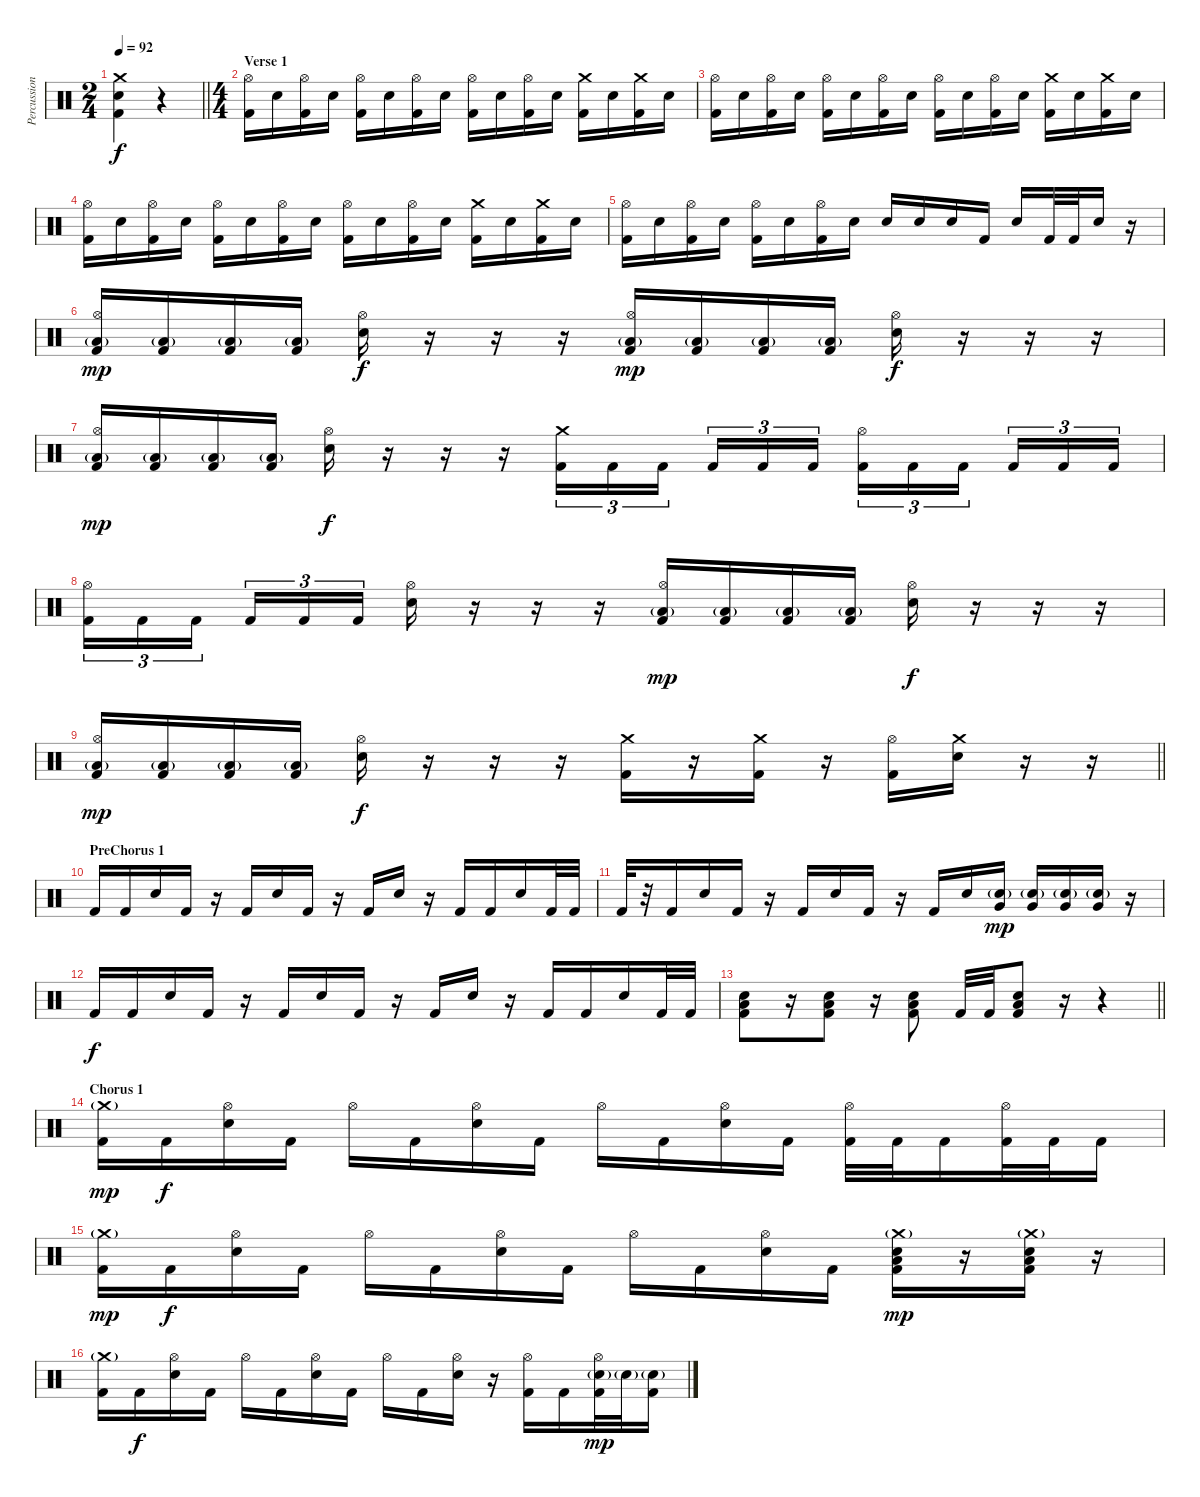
\track ("Percussion" "Percussion") {instrument percussion}
\staff {score}
\articulation defaults
\ts (2 4)
\tempo 92
\clef neutral
\barLineRight lightlight
\ks c
("Crash medium (hit)" "Electric Snare (hit)" "Kick (hit) 2").4{dy f} r.4 |
\ts (4 4)
\section ("" "Verse 1")
("Hi-Hat (open)" "Kick (hit) 2").16 "Electric Snare (hit)".16 ("Hi-Hat (open)" "Kick (hit) 2").16 "Electric Snare (hit)".16 ("Hi-Hat (open)" "Kick (hit) 2").16 "Electric Snare (hit)".16 ("Hi-Hat (open)" "Kick (hit) 2").16 "Electric Snare (hit)".16 ("Hi-Hat (open)" "Kick (hit) 2").16 "Electric Snare (hit)".16 ("Hi-Hat (open)" "Kick (hit) 2").16 "Electric Snare (hit)".16 ("Crash medium (hit)" "Kick (hit) 2").16 "Electric Snare (hit)".16 ("Crash medium (hit)" "Kick (hit) 2").16 "Electric Snare (hit)".16 |
("Hi-Hat (open)" "Kick (hit) 2").16 "Electric Snare (hit)".16 ("Hi-Hat (open)" "Kick (hit) 2").16 "Electric Snare (hit)".16 ("Hi-Hat (open)" "Kick (hit) 2").16 "Electric Snare (hit)".16 ("Hi-Hat (open)" "Kick (hit) 2").16 "Electric Snare (hit)".16 ("Hi-Hat (open)" "Kick (hit) 2").16 "Electric Snare (hit)".16 ("Hi-Hat (open)" "Kick (hit) 2").16 "Electric Snare (hit)".16 ("Crash medium (hit)" "Kick (hit) 2").16 "Electric Snare (hit)".16 ("Crash medium (hit)" "Kick (hit) 2").16 "Electric Snare (hit)".16 |
("Hi-Hat (open)" "Kick (hit) 2").16 "Electric Snare (hit)".16 ("Hi-Hat (open)" "Kick (hit) 2").16 "Electric Snare (hit)".16 ("Hi-Hat (open)" "Kick (hit) 2").16 "Electric Snare (hit)".16 ("Hi-Hat (open)" "Kick (hit) 2").16 "Electric Snare (hit)".16 ("Hi-Hat (open)" "Kick (hit) 2").16 "Electric Snare (hit)".16 ("Hi-Hat (open)" "Kick (hit) 2").16 "Electric Snare (hit)".16 ("Crash medium (hit)" "Kick (hit) 2").16 "Electric Snare (hit)".16 ("Crash medium (hit)" "Kick (hit) 2").16 "Electric Snare (hit)".16 |
("Hi-Hat (open)" "Kick (hit) 2").16 "Electric Snare (hit)".16 ("Hi-Hat (open)" "Kick (hit) 2").16 "Electric Snare (hit)".16 ("Hi-Hat (open)" "Kick (hit) 2").16 "Electric Snare (hit)".16 ("Hi-Hat (open)" "Kick (hit) 2").16 "Electric Snare (hit)".16 "Electric Snare (hit)".16 "Electric Snare (hit)".16 "Electric Snare (hit)".16 "Kick (hit) 2".16 "Electric Snare (hit)".16 "Kick (hit) 2".32 "Kick (hit) 2".32 "Electric Snare (hit)".16 r.16 |
("Hi-Hat (open)" "Low Floor Tom (hit)"{g} "Kick (hit) 2").16{dy mp} ("Low Floor Tom (hit)"{g} "Kick (hit) 2").16 ("Low Floor Tom (hit)"{g} "Kick (hit) 2").16 ("Low Floor Tom (hit)"{g} "Kick (hit) 2").16 ("Hi-Hat (open)" "Electric Snare (hit)").16{dy f} r.16 r.16 r.16 ("Hi-Hat (open)" "Low Floor Tom (hit)"{g} "Kick (hit) 2").16{dy mp} ("Low Floor Tom (hit)"{g} "Kick (hit) 2").16 ("Low Floor Tom (hit)"{g} "Kick (hit) 2").16 ("Low Floor Tom (hit)"{g} "Kick (hit) 2").16 ("Hi-Hat (open)" "Electric Snare (hit)").16{dy f} r.16 r.16 r.16 |
("Hi-Hat (open)" "Low Floor Tom (hit)"{g} "Kick (hit) 2").16{dy mp} ("Low Floor Tom (hit)"{g} "Kick (hit) 2").16 ("Low Floor Tom (hit)"{g} "Kick (hit) 2").16 ("Low Floor Tom (hit)"{g} "Kick (hit) 2").16 ("Hi-Hat (open)" "Electric Snare (hit)").16{dy f} r.16 r.16 r.16 ("Crash medium (hit)" "Kick (hit) 2").16{tu (3 2)} "Kick (hit) 2".16{tu (3 2)} "Kick (hit) 2".16{tu (3 2) beam splitsecondary} "Kick (hit) 2".16{tu (3 2)} "Kick (hit) 2".16{tu (3 2)} "Kick (hit) 2".16{tu (3 2)} ("Hi-Hat (open)" "Kick (hit) 2").16{tu (3 2)} "Kick (hit) 2".16{tu (3 2)} "Kick (hit) 2".16{tu (3 2) beam splitsecondary} "Kick (hit) 2".16{tu (3 2)} "Kick (hit) 2".16{tu (3 2)} "Kick (hit) 2".16{tu (3 2)} |
("Hi-Hat (open)" "Kick (hit) 2").16{tu (3 2)} "Kick (hit) 2".16{tu (3 2)} "Kick (hit) 2".16{tu (3 2) beam splitsecondary} "Kick (hit) 2".16{tu (3 2)} "Kick (hit) 2".16{tu (3 2)} "Kick (hit) 2".16{tu (3 2)} ("Hi-Hat (open)" "Electric Snare (hit)").16 r.16 r.16 r.16 ("Hi-Hat (open)" "Low Floor Tom (hit)"{g} "Kick (hit) 2").16{dy mp} ("Low Floor Tom (hit)"{g} "Kick (hit) 2").16 ("Low Floor Tom (hit)"{g} "Kick (hit) 2").16 ("Low Floor Tom (hit)"{g} "Kick (hit) 2").16 ("Hi-Hat (open)" "Electric Snare (hit)").16{dy f} r.16 r.16 r.16 |
\barLineRight lightlight
("Hi-Hat (open)" "Low Floor Tom (hit)"{g} "Kick (hit) 2").16{dy mp} ("Low Floor Tom (hit)"{g} "Kick (hit) 2").16 ("Low Floor Tom (hit)"{g} "Kick (hit) 2").16 ("Low Floor Tom (hit)"{g} "Kick (hit) 2").16 ("Hi-Hat (open)" "Electric Snare (hit)").16{dy f} r.16 r.16 r.16 ("Crash medium (hit)" "Kick (hit) 2").16 r.16 ("Crash medium (hit)" "Kick (hit) 2").16 r.16 ("Hi-Hat (open)" "Kick (hit) 2").16 ("Crash medium (hit)" "Electric Snare (hit)").16 r.16 r.16 |
\section ("" "PreChorus 1")
"Kick (hit) 2".16 "Kick (hit) 2".16 "Electric Snare (hit)".16 "Kick (hit) 2".16 r.16 "Kick (hit) 2".16 "Electric Snare (hit)".16 "Kick (hit) 2".16 r.16 "Kick (hit) 2".16 "Electric Snare (hit)".16 r.16 "Kick (hit) 2".16 "Kick (hit) 2".16 "Electric Snare (hit)".16 "Kick (hit) 2".32 "Kick (hit) 2".32 |
"Kick (hit) 2".32 r.32 "Kick (hit) 2".16 "Electric Snare (hit)".16 "Kick (hit) 2".16 r.16 "Kick (hit) 2".16 "Electric Snare (hit)".16 "Kick (hit) 2".16 r.16 "Kick (hit) 2".16 "Electric Snare (hit)".16 ("Very Low Tom (hit)" "Electric Snare (hit)"{g}).16{dy mp} ("Very Low Tom (hit)" "Electric Snare (hit)"{g}).16 ("Very Low Tom (hit)" "Electric Snare (hit)"{g}).16 ("Very Low Tom (hit)" "Electric Snare (hit)"{g}).16 r.16 |
"Kick (hit) 2".16{dy f} "Kick (hit) 2".16 "Electric Snare (hit)".16 "Kick (hit) 2".16 r.16 "Kick (hit) 2".16 "Electric Snare (hit)".16 "Kick (hit) 2".16 r.16 "Kick (hit) 2".16 "Electric Snare (hit)".16 r.16 "Kick (hit) 2".16 "Kick (hit) 2".16 "Electric Snare (hit)".16 "Kick (hit) 2".32 "Kick (hit) 2".32 |
\barLineRight lightlight
("Low Floor Tom (hit)" "Electric Snare (hit)" "Kick (hit) 2").8 r.16 ("Low Floor Tom (hit)" "Electric Snare (hit)" "Kick (hit) 2").8 r.16 ("Low Floor Tom (hit)" "Electric Snare (hit)" "Kick (hit) 2").8 "Kick (hit) 2".32 "Kick (hit) 2".32 ("Low Floor Tom (hit)" "Electric Snare (hit)" "Kick (hit) 2").8 r.16 r.4 |
\section ("" "Chorus 1")
("Crash medium (hit)"{g} "Kick (hit) 2").16{dy mp} "Kick (hit) 2".16{dy f} ("Hi-Hat (open)" "Electric Snare (hit)").16 "Kick (hit) 2".16 "Hi-Hat (open)".16 "Kick (hit) 2".16 ("Hi-Hat (open)" "Electric Snare (hit)").16 "Kick (hit) 2".16 "Hi-Hat (open)".16 "Kick (hit) 2".16 ("Hi-Hat (open)" "Electric Snare (hit)").16 "Kick (hit) 2".16 ("Hi-Hat (open)" "Kick (hit) 2").32 "Kick (hit) 2".32 "Kick (hit) 2".16 ("Hi-Hat (open)" "Kick (hit) 2").32 "Kick (hit) 2".32 "Kick (hit) 2".16 |
("Crash medium (hit)"{g} "Kick (hit) 2").16{dy mp} "Kick (hit) 2".16{dy f} ("Hi-Hat (open)" "Electric Snare (hit)").16 "Kick (hit) 2".16 "Hi-Hat (open)".16 "Kick (hit) 2".16 ("Hi-Hat (open)" "Electric Snare (hit)").16 "Kick (hit) 2".16 "Hi-Hat (open)".16 "Kick (hit) 2".16 ("Hi-Hat (open)" "Electric Snare (hit)").16 "Kick (hit) 2".16 ("Crash medium (hit)"{g} "Low Floor Tom (hit)" "Electric Snare (hit)" "Kick (hit) 2").16{dy mp} r.16 ("Crash medium (hit)"{g} "Low Floor Tom (hit)" "Electric Snare (hit)" "Kick (hit) 2").16 r.16 |
("Crash medium (hit)"{g} "Kick (hit) 2").16 "Kick (hit) 2".16{dy f} ("Hi-Hat (open)" "Electric Snare (hit)").16 "Kick (hit) 2".16 "Hi-Hat (open)".16 "Kick (hit) 2".16 ("Hi-Hat (open)" "Electric Snare (hit)").16 "Kick (hit) 2".16 "Hi-Hat (open)".16 "Kick (hit) 2".16 ("Hi-Hat (open)" "Electric Snare (hit)").16 r.16 ("Hi-Hat (open)" "Kick (hit) 2").16 "Kick (hit) 2".16 ("Hi-Hat (open)" "Electric Snare (hit)"{g} "Kick (hit) 2").32{dy mp} "Electric Snare (hit)"{g}.32 ("Electric Snare (hit)"{g} "Kick (hit) 2").16
